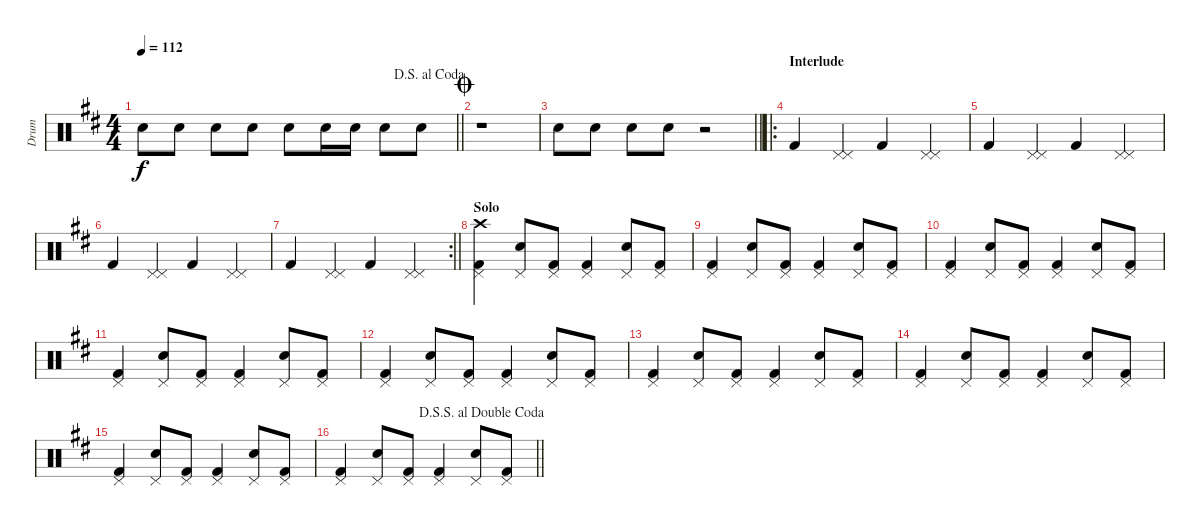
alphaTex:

\track ("Drum" "Drum") {instrument percussion}
\staff {score}
\articulation defaults
\ts (4 4)
\jump dalsegnoalcoda
\tempo 112
\clef neutral
\barLineRight lightlight
\ks d "Snare (hit) 2".8{dy f volume 8} "Snare (hit) 2".8{volume 16} "Snare (hit) 2".8 "Snare (hit) 2".8 "Snare (hit) 2".8 "Snare (hit) 2".16 "Electric Snare (hit)".16 "Snare (hit) 2".8 "Snare (hit) 2".8
|
\jump coda
r.1 |
\barLineRight lightlight "Electric Snare (hit)".8 "Electric Snare (hit)".8 "Electric Snare (hit)".8 "Electric Snare (hit)".8
r.2 |
\ro
\section ("" "Interlude")
"Kick (hit) 2".4 ("Pedal Hi-Hat (hit)" "Pedal Hi-Hat (hit)").4 "Kick (hit) 2".4 ("Pedal Hi-Hat (hit)" "Pedal Hi-Hat (hit)").4 |
"Kick (hit) 2".4 ("Pedal Hi-Hat (hit)" "Pedal Hi-Hat (hit)").4 "Kick (hit) 2".4 ("Pedal Hi-Hat (hit)" "Pedal Hi-Hat (hit)").4 |
"Kick (hit) 2".4 ("Pedal Hi-Hat (hit)" "Pedal Hi-Hat (hit)").4 "Kick (hit) 2".4 ("Pedal Hi-Hat (hit)" "Pedal Hi-Hat (hit)").4 |
\rc 2
\barLineRight lightlight "Kick (hit) 2".4
("Pedal Hi-Hat (hit)" "Pedal Hi-Hat (hit)").4 "Kick (hit) 2".4 ("Pedal Hi-Hat (hit)" "Pedal Hi-Hat (hit)").4 |
\section ("" "Solo")
("Pedal Hi-Hat (hit)" "Kick (hit) 2" "Crash high (hit)").4 ("Pedal Hi-Hat (hit)" "Snare (hit) 2").8 ("Pedal Hi-Hat (hit)" "Kick (hit) 2").8 ("Pedal Hi-Hat (hit)" "Kick (hit) 2").4 ("Pedal Hi-Hat (hit)" "Snare (hit) 2").8 ("Pedal Hi-Hat (hit)" "Kick (hit) 2").8 |
("Pedal Hi-Hat (hit)" "Kick (hit) 2").4 ("Pedal Hi-Hat (hit)" "Snare (hit) 2").8 ("Pedal Hi-Hat (hit)" "Kick (hit) 2").8 ("Pedal Hi-Hat (hit)" "Kick (hit) 2").4 ("Pedal Hi-Hat (hit)" "Snare (hit) 2").8 ("Pedal Hi-Hat (hit)" "Kick (hit) 2").8 |
("Pedal Hi-Hat (hit)" "Kick (hit) 2").4 ("Pedal Hi-Hat (hit)" "Snare (hit) 2").8 ("Pedal Hi-Hat (hit)" "Kick (hit) 2").8 ("Pedal Hi-Hat (hit)" "Kick (hit) 2").4 ("Pedal Hi-Hat (hit)" "Snare (hit) 2").8 ("Pedal Hi-Hat (hit)" "Kick (hit) 2").8 |
("Pedal Hi-Hat (hit)" "Kick (hit) 2").4 ("Pedal Hi-Hat (hit)" "Snare (hit) 2").8 ("Pedal Hi-Hat (hit)" "Kick (hit) 2").8 ("Pedal Hi-Hat (hit)" "Kick (hit) 2").4 ("Pedal Hi-Hat (hit)" "Snare (hit) 2").8 ("Pedal Hi-Hat (hit)" "Kick (hit) 2").8 |
("Pedal Hi-Hat (hit)" "Kick (hit) 2").4 ("Pedal Hi-Hat (hit)" "Snare (hit) 2").8 ("Pedal Hi-Hat (hit)" "Kick (hit) 2").8 ("Pedal Hi-Hat (hit)" "Kick (hit) 2").4 ("Pedal Hi-Hat (hit)" "Snare (hit) 2").8 ("Pedal Hi-Hat (hit)" "Kick (hit) 2").8 |
("Pedal Hi-Hat (hit)" "Kick (hit) 2").4 ("Pedal Hi-Hat (hit)" "Snare (hit) 2").8 ("Pedal Hi-Hat (hit)" "Kick (hit) 2").8 ("Pedal Hi-Hat (hit)" "Kick (hit) 2").4 ("Pedal Hi-Hat (hit)" "Snare (hit) 2").8 ("Pedal Hi-Hat (hit)" "Kick (hit) 2").8 |
("Pedal Hi-Hat (hit)" "Kick (hit) 2").4 ("Pedal Hi-Hat (hit)" "Snare (hit) 2").8 ("Pedal Hi-Hat (hit)" "Kick (hit) 2").8 ("Pedal Hi-Hat (hit)" "Kick (hit) 2").4 ("Pedal Hi-Hat (hit)" "Snare (hit) 2").8 ("Pedal Hi-Hat (hit)" "Kick (hit) 2").8 |
("Pedal Hi-Hat (hit)" "Kick (hit) 2").4 ("Pedal Hi-Hat (hit)" "Snare (hit) 2").8 ("Pedal Hi-Hat (hit)" "Kick (hit) 2").8 ("Pedal Hi-Hat (hit)" "Kick (hit) 2").4 ("Pedal Hi-Hat (hit)" "Snare (hit) 2").8 ("Pedal Hi-Hat (hit)" "Kick (hit) 2").8 |
\jump dalsegnosegnoaldoublecoda
\barLineRight lightlight
("Pedal Hi-Hat (hit)" "Kick (hit) 2").4 ("Pedal Hi-Hat (hit)" "Snare (hit) 2").8 ("Pedal Hi-Hat (hit)" "Kick (hit) 2").8 ("Pedal Hi-Hat (hit)" "Kick (hit) 2").4 ("Pedal Hi-Hat (hit)" "Snare (hit) 2").8 ("Pedal Hi-Hat (hit)" "Kick (hit) 2").8
